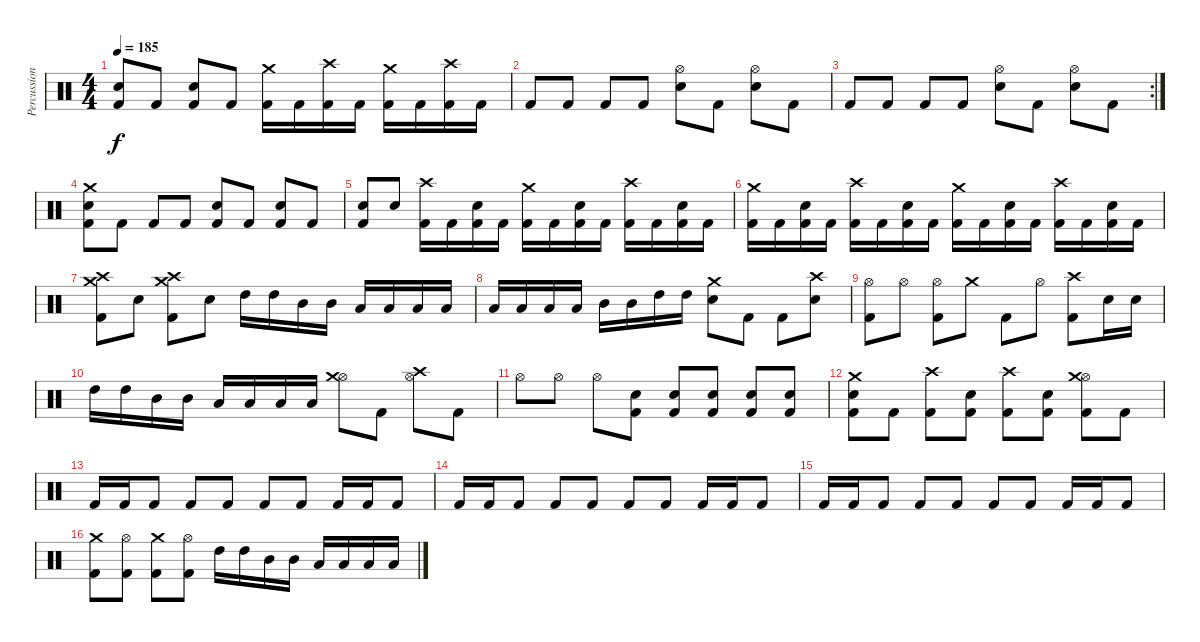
\track ("Percussion" "Percussion") {instrument percussion}
\staff {score}
\articulation defaults
\ts (4 4)
\tempo 185
\clef neutral
\ks c
("Kick (hit) 2" "Electric Snare (hit)").8{dy f} "Kick (hit) 2".8 ("Kick (hit) 2" "Electric Snare (hit)").8 "Kick (hit) 2".8 ("Kick (hit) 2" "Crash medium (hit)").16 "Kick (hit) 2".16 ("Kick (hit) 2" "Crash high (hit)").16 "Kick (hit) 2".16 ("Kick (hit) 2" "Crash medium (hit)").16 "Kick (hit) 2".16 ("Kick (hit) 2" "Crash high (hit)").16 "Kick (hit) 2".16 |
"Kick (hit) 2".8 "Kick (hit) 2".8 "Kick (hit) 2".8 "Kick (hit) 2".8 ("Electric Snare (hit)" "Hi-Hat (open)").8 "Kick (hit) 2".8 ("Electric Snare (hit)" "Hi-Hat (open)").8 "Kick (hit) 2".8 |
\rc 2 "Kick (hit) 2".8 "Kick (hit) 2".8 "Kick (hit) 2".8 "Kick (hit) 2".8
("Electric Snare (hit)" "Hi-Hat (open)").8 "Kick (hit) 2".8 ("Electric Snare (hit)" "Hi-Hat (open)").8 "Kick (hit) 2".8 |
("Kick (hit) 2" "Electric Snare (hit)" "Crash medium (hit)").8 "Kick (hit) 2".8 "Kick (hit) 2".8 "Kick (hit) 2".8 ("Kick (hit) 2" "Electric Snare (hit)").8 "Kick (hit) 2".8 ("Kick (hit) 2" "Electric Snare (hit)").8 "Kick (hit) 2".8 |
("Kick (hit) 2" "Electric Snare (hit)").8 "Electric Snare (hit)".8 ("Kick (hit) 2" "Crash high (hit)").16 "Kick (hit) 2".16 ("Kick (hit) 2" "Electric Snare (hit)").16 "Kick (hit) 2".16 ("Kick (hit) 2" "Crash medium (hit)").16 "Kick (hit) 2".16 ("Kick (hit) 2" "Electric Snare (hit)").16 "Kick (hit) 2".16 ("Kick (hit) 2" "Crash high (hit)").16 "Kick (hit) 2".16 ("Kick (hit) 2" "Electric Snare (hit)").16 "Kick (hit) 2".16 |
("Kick (hit) 2" "Crash medium (hit)").16 "Kick (hit) 2".16 ("Kick (hit) 2" "Electric Snare (hit)").16 "Kick (hit) 2".16 ("Kick (hit) 2" "Crash high (hit)").16 "Kick (hit) 2".16 ("Kick (hit) 2" "Electric Snare (hit)").16 "Kick (hit) 2".16 ("Kick (hit) 2" "Crash medium (hit)").16 "Kick (hit) 2".16 ("Kick (hit) 2" "Electric Snare (hit)").16 "Kick (hit) 2".16 ("Kick (hit) 2" "Crash high (hit)").16 "Kick (hit) 2".16 ("Kick (hit) 2" "Electric Snare (hit)").16 "Kick (hit) 2".16 |
("Kick (hit) 2" "Crash medium (hit)" "Crash high (hit)").8 "Electric Snare (hit)".8 ("Kick (hit) 2" "Crash medium (hit)" "Crash high (hit)").8 "Electric Snare (hit)".8 "High Tom (hit)".16 "High Tom (hit)".16 "Mid Tom (hit)".16 "Mid Tom (hit)".16 "Low Tom (hit)".16 "Low Tom (hit)".16 "Low Floor Tom (hit)".16 "Low Floor Tom (hit)".16 |
"Low Floor Tom (hit)".16 "Low Floor Tom (hit)".16 "Low Tom (hit)".16 "Low Tom (hit)".16 "Mid Tom (hit)".16 "Mid Tom (hit)".16 "High Tom (hit)".16 "High Tom (hit)".16 ("Electric Snare (hit)" "Crash medium (hit)").8 "Kick (hit) 2".8 "Kick (hit) 2".8 ("Electric Snare (hit)" "Crash high (hit)").8 |
("Kick (hit) 2" "Hi-Hat (open)").8 "Hi-Hat (open)".8 ("Kick (hit) 2" "Hi-Hat (open)").8 "Crash medium (hit)".8 "Kick (hit) 2".8 "Hi-Hat (open)".8 ("Kick (hit) 2" "Crash high (hit)").8 "Electric Snare (hit)".16 "Electric Snare (hit)".16 |
"High Tom (hit)".16 "High Tom (hit)".16 "Mid Tom (hit)".16 "Mid Tom (hit)".16 "Low Tom (hit)".16 "Low Tom (hit)".16 "Low Floor Tom (hit)".16 "Low Floor Tom (hit)".16 ("Hi-Hat (open)" "Crash medium (hit)").8 "Kick (hit) 2".8 ("Hi-Hat (open)" "Crash high (hit)").8 "Kick (hit) 2".8 |
"Hi-Hat (open)".8 "Hi-Hat (open)".8 "Hi-Hat (open)".8 ("Kick (hit) 2" "Electric Snare (hit)").8 ("Kick (hit) 2" "Electric Snare (hit)").8 ("Kick (hit) 2" "Electric Snare (hit)").8 ("Kick (hit) 2" "Electric Snare (hit)").8 ("Kick (hit) 2" "Electric Snare (hit)").8 |
("Kick (hit) 2" "Electric Snare (hit)" "Crash medium (hit)").8 "Kick (hit) 2".8 ("Kick (hit) 2" "Crash high (hit)").8 ("Kick (hit) 2" "Electric Snare (hit)").8 ("Kick (hit) 2" "Crash high (hit)").8 ("Kick (hit) 2" "Electric Snare (hit)").8 ("Kick (hit) 2" "Hi-Hat (open)" "Crash medium (hit)").8 "Kick (hit) 2".8 |
"Kick (hit) 2".16 "Kick (hit) 2".16 "Kick (hit) 2".8 "Kick (hit) 2".8 "Kick (hit) 2".8 "Kick (hit) 2".8 "Kick (hit) 2".8 "Kick (hit) 2".16 "Kick (hit) 2".16 "Kick (hit) 2".8 |
"Kick (hit) 2".16 "Kick (hit) 2".16 "Kick (hit) 2".8 "Kick (hit) 2".8 "Kick (hit) 2".8 "Kick (hit) 2".8 "Kick (hit) 2".8 "Kick (hit) 2".16 "Kick (hit) 2".16 "Kick (hit) 2".8 |
"Kick (hit) 2".16 "Kick (hit) 2".16 "Kick (hit) 2".8 "Kick (hit) 2".8 "Kick (hit) 2".8 "Kick (hit) 2".8 "Kick (hit) 2".8 "Kick (hit) 2".16 "Kick (hit) 2".16 "Kick (hit) 2".8 |
("Kick (hit) 2" "Crash medium (hit)").8 ("Kick (hit) 2" "Hi-Hat (open)").8 ("Kick (hit) 2" "Crash medium (hit)").8 ("Kick (hit) 2" "Hi-Hat (open)").8 "High Tom (hit)".16 "High Tom (hit)".16 "Mid Tom (hit)".16 "Mid Tom (hit)".16 "Low Tom (hit)".16 "Low Tom (hit)".16 "Low Floor Tom (hit)".16 "Low Floor Tom (hit)".16
